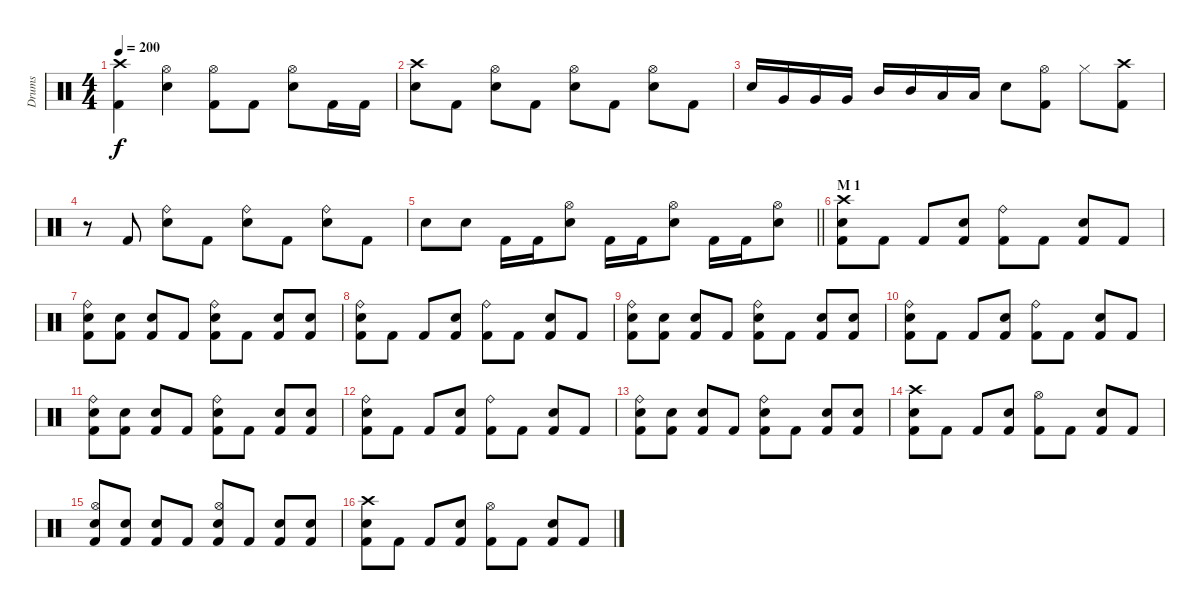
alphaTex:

\track ("Drums" "Drums") {instrument percussion}
\staff {score}
\articulation defaults
\ts (4 4)
\tempo 200
\clef neutral
\ks c
("Crash high (hit)" "Kick (hit) 2").4{dy f} ("Hi-Hat (open)" "Snare (hit) 2").4 ("Hi-Hat (open)" "Kick (hit) 2").8 "Kick (hit) 2".8 ("Hi-Hat (open)" "Snare (hit) 2").8 "Kick (hit) 2".16 "Kick (hit) 2".16 |
("Crash high (hit)" "Snare (hit) 2").8 "Kick (hit) 2".8 ("Hi-Hat (open)" "Snare (hit) 2").8 "Kick (hit) 2".8 ("Hi-Hat (open)" "Snare (hit) 2").8 "Kick (hit) 2".8 ("Hi-Hat (open)" "Snare (hit) 2").8 "Kick (hit) 2".8 |
"Snare (hit) 2".16 "Very Low Tom (hit)".16 "Very Low Tom (hit)".16 "Very Low Tom (hit)".16 "Mid Tom (hit)".16 "Mid Tom (hit)".16 "Low Tom (hit)".16 "Low Tom (hit)".16 "Snare (hit) 2".8 ("Hi-Hat (open)" "Kick (hit) 2").8 "Hi-Hat (closed)".8 ("Crash high (hit)" "Kick (hit) 2").8 |
r.8 "Kick (hit) 2".8 ("Ride (bell)" "Snare (hit) 2").8 "Kick (hit) 2".8 ("Ride (bell)" "Snare (hit) 2").8 "Kick (hit) 2".8 ("Ride (bell)" "Snare (hit) 2").8 "Kick (hit) 2".8 |
\barLineRight lightlight "Snare (hit) 2".8 "Snare (hit) 2".8 "Kick (hit) 2".16 "Kick (hit) 2".16
("Hi-Hat (open)" "Snare (hit) 2").8 "Kick (hit) 2".16 "Kick (hit) 2".16 ("Hi-Hat (open)" "Snare (hit) 2").8 "Kick (hit) 2".16 "Kick (hit) 2".16 ("Hi-Hat (open)" "Snare (hit) 2").8 |
\section ("" "M 1")
("Crash high (hit)" "Snare (hit) 2" "Kick (hit) 2").8 "Kick (hit) 2".8 "Kick (hit) 2".8 ("Snare (hit) 2" "Kick (hit) 2").8 ("Ride (bell)" "Kick (hit) 2").8 "Kick (hit) 2".8 ("Snare (hit) 2" "Kick (hit) 2").8 "Kick (hit) 2".8 |
("Ride (bell)" "Snare (hit) 2" "Kick (hit) 2").8 ("Snare (hit) 2" "Kick (hit) 2").8 ("Snare (hit) 2" "Kick (hit) 2").8 "Kick (hit) 2".8 ("Ride (bell)" "Snare (hit) 2" "Kick (hit) 2").8 "Kick (hit) 2".8 ("Snare (hit) 2" "Kick (hit) 2").8 ("Snare (hit) 2" "Kick (hit) 2").8 |
("Ride (bell)" "Snare (hit) 2" "Kick (hit) 2").8 "Kick (hit) 2".8 "Kick (hit) 2".8 ("Snare (hit) 2" "Kick (hit) 2").8 ("Ride (bell)" "Kick (hit) 2").8 "Kick (hit) 2".8 ("Snare (hit) 2" "Kick (hit) 2").8 "Kick (hit) 2".8 |
("Ride (bell)" "Snare (hit) 2" "Kick (hit) 2").8 ("Snare (hit) 2" "Kick (hit) 2").8 ("Snare (hit) 2" "Kick (hit) 2").8 "Kick (hit) 2".8 ("Ride (bell)" "Snare (hit) 2" "Kick (hit) 2").8 "Kick (hit) 2".8 ("Snare (hit) 2" "Kick (hit) 2").8 ("Snare (hit) 2" "Kick (hit) 2").8 |
("Ride (bell)" "Snare (hit) 2" "Kick (hit) 2").8 "Kick (hit) 2".8 "Kick (hit) 2".8 ("Snare (hit) 2" "Kick (hit) 2").8 ("Ride (bell)" "Kick (hit) 2").8 "Kick (hit) 2".8 ("Snare (hit) 2" "Kick (hit) 2").8 "Kick (hit) 2".8 |
("Ride (bell)" "Snare (hit) 2" "Kick (hit) 2").8 ("Snare (hit) 2" "Kick (hit) 2").8 ("Snare (hit) 2" "Kick (hit) 2").8 "Kick (hit) 2".8 ("Ride (bell)" "Snare (hit) 2" "Kick (hit) 2").8 "Kick (hit) 2".8 ("Snare (hit) 2" "Kick (hit) 2").8 ("Snare (hit) 2" "Kick (hit) 2").8 |
("Ride (bell)" "Snare (hit) 2" "Kick (hit) 2").8 "Kick (hit) 2".8 "Kick (hit) 2".8 ("Snare (hit) 2" "Kick (hit) 2").8 ("Ride (bell)" "Kick (hit) 2").8 "Kick (hit) 2".8 ("Snare (hit) 2" "Kick (hit) 2").8 "Kick (hit) 2".8 |
("Ride (bell)" "Snare (hit) 2" "Kick (hit) 2").8 ("Snare (hit) 2" "Kick (hit) 2").8 ("Snare (hit) 2" "Kick (hit) 2").8 "Kick (hit) 2".8 ("Ride (bell)" "Snare (hit) 2" "Kick (hit) 2").8 "Kick (hit) 2".8 ("Snare (hit) 2" "Kick (hit) 2").8 ("Snare (hit) 2" "Kick (hit) 2").8 |
("Crash high (hit)" "Snare (hit) 2" "Kick (hit) 2").8 "Kick (hit) 2".8 "Kick (hit) 2".8 ("Snare (hit) 2" "Kick (hit) 2").8 ("Hi-Hat (open)" "Kick (hit) 2").8 "Kick (hit) 2".8 ("Snare (hit) 2" "Kick (hit) 2").8 "Kick (hit) 2".8 |
("Hi-Hat (open)" "Snare (hit) 2" "Kick (hit) 2").8 ("Snare (hit) 2" "Kick (hit) 2").8 ("Snare (hit) 2" "Kick (hit) 2").8 "Kick (hit) 2".8 ("Hi-Hat (open)" "Snare (hit) 2" "Kick (hit) 2").8 "Kick (hit) 2".8 ("Snare (hit) 2" "Kick (hit) 2").8 ("Snare (hit) 2" "Kick (hit) 2").8 |
("Crash high (hit)" "Snare (hit) 2" "Kick (hit) 2").8 "Kick (hit) 2".8 "Kick (hit) 2".8 ("Snare (hit) 2" "Kick (hit) 2").8 ("Hi-Hat (open)" "Kick (hit) 2").8 "Kick (hit) 2".8 ("Snare (hit) 2" "Kick (hit) 2").8 "Kick (hit) 2".8
